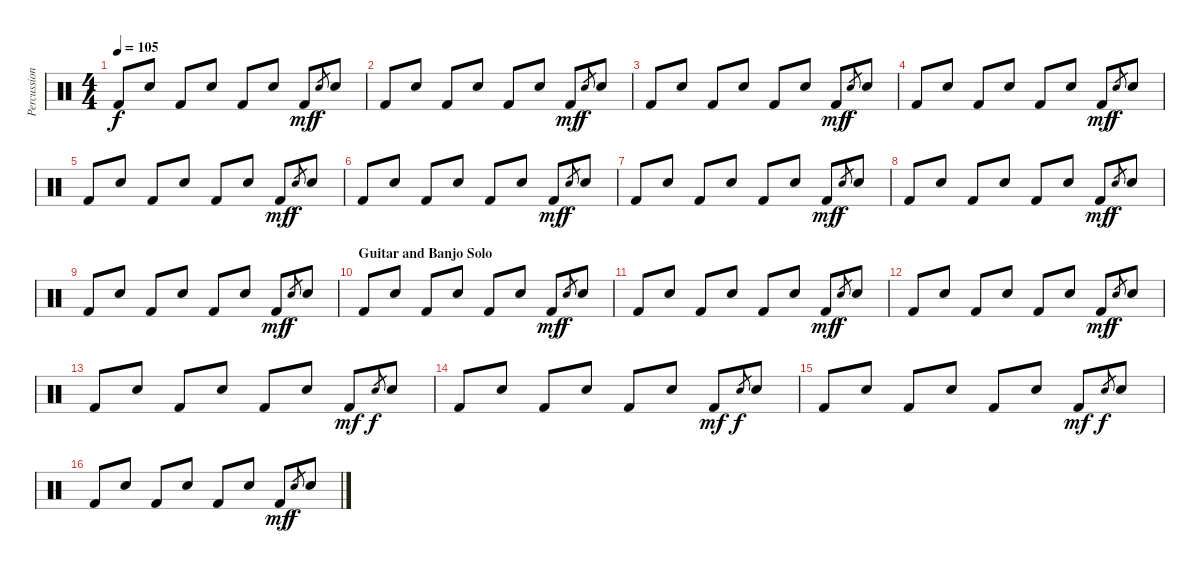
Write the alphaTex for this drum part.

\track ("Percussion" "Percussion") {instrument percussion}
\staff {score}
\articulation defaults
\ts (4 4)
\tempo 105
\clef neutral
\ks c "Kick (hit) 2".8{dy f} "Electric Snare (hit)".8 "Kick (hit) 2".8 "Electric Snare (hit)".8 "Kick (hit) 2".8 "Electric Snare (hit)".8 "Kick (hit) 2".8{dy mf} "Electric Snare (hit)".8{gr dy f} "Electric Snare (hit)".8
|
"Kick (hit) 2".8 "Electric Snare (hit)".8 "Kick (hit) 2".8 "Electric Snare (hit)".8 "Kick (hit) 2".8 "Electric Snare (hit)".8 "Kick (hit) 2".8{dy mf} "Electric Snare (hit)".8{gr dy f} "Electric Snare (hit)".8 |
"Kick (hit) 2".8 "Electric Snare (hit)".8 "Kick (hit) 2".8 "Electric Snare (hit)".8 "Kick (hit) 2".8 "Electric Snare (hit)".8 "Kick (hit) 2".8{dy mf} "Electric Snare (hit)".8{gr dy f} "Electric Snare (hit)".8 |
"Kick (hit) 2".8 "Electric Snare (hit)".8 "Kick (hit) 2".8 "Electric Snare (hit)".8 "Kick (hit) 2".8 "Electric Snare (hit)".8 "Kick (hit) 2".8{dy mf} "Electric Snare (hit)".8{gr dy f} "Electric Snare (hit)".8 |
"Kick (hit) 2".8 "Electric Snare (hit)".8 "Kick (hit) 2".8 "Electric Snare (hit)".8 "Kick (hit) 2".8 "Electric Snare (hit)".8 "Kick (hit) 2".8{dy mf} "Electric Snare (hit)".8{gr dy f} "Electric Snare (hit)".8 |
"Kick (hit) 2".8 "Electric Snare (hit)".8 "Kick (hit) 2".8 "Electric Snare (hit)".8 "Kick (hit) 2".8 "Electric Snare (hit)".8 "Kick (hit) 2".8{dy mf} "Electric Snare (hit)".8{gr dy f} "Electric Snare (hit)".8 |
"Kick (hit) 2".8 "Electric Snare (hit)".8 "Kick (hit) 2".8 "Electric Snare (hit)".8 "Kick (hit) 2".8 "Electric Snare (hit)".8 "Kick (hit) 2".8{dy mf} "Electric Snare (hit)".8{gr dy f} "Electric Snare (hit)".8 |
"Kick (hit) 2".8 "Electric Snare (hit)".8 "Kick (hit) 2".8 "Electric Snare (hit)".8 "Kick (hit) 2".8 "Electric Snare (hit)".8 "Kick (hit) 2".8{dy mf} "Electric Snare (hit)".8{gr dy f} "Electric Snare (hit)".8 |
"Kick (hit) 2".8 "Electric Snare (hit)".8 "Kick (hit) 2".8 "Electric Snare (hit)".8 "Kick (hit) 2".8 "Electric Snare (hit)".8 "Kick (hit) 2".8{dy mf} "Electric Snare (hit)".8{gr dy f} "Electric Snare (hit)".8 |
\section ("" "Guitar and Banjo Solo")
"Kick (hit) 2".8 "Electric Snare (hit)".8 "Kick (hit) 2".8 "Electric Snare (hit)".8 "Kick (hit) 2".8 "Electric Snare (hit)".8 "Kick (hit) 2".8{dy mf} "Electric Snare (hit)".8{gr dy f} "Electric Snare (hit)".8 |
"Kick (hit) 2".8 "Electric Snare (hit)".8 "Kick (hit) 2".8 "Electric Snare (hit)".8 "Kick (hit) 2".8 "Electric Snare (hit)".8 "Kick (hit) 2".8{dy mf} "Electric Snare (hit)".8{gr dy f} "Electric Snare (hit)".8 |
"Kick (hit) 2".8 "Electric Snare (hit)".8 "Kick (hit) 2".8 "Electric Snare (hit)".8 "Kick (hit) 2".8 "Electric Snare (hit)".8 "Kick (hit) 2".8{dy mf} "Electric Snare (hit)".8{gr dy f} "Electric Snare (hit)".8 |
"Kick (hit) 2".8 "Electric Snare (hit)".8 "Kick (hit) 2".8 "Electric Snare (hit)".8 "Kick (hit) 2".8 "Electric Snare (hit)".8 "Kick (hit) 2".8{dy mf} "Electric Snare (hit)".8{gr dy f} "Electric Snare (hit)".8 |
"Kick (hit) 2".8 "Electric Snare (hit)".8 "Kick (hit) 2".8 "Electric Snare (hit)".8 "Kick (hit) 2".8 "Electric Snare (hit)".8 "Kick (hit) 2".8{dy mf} "Electric Snare (hit)".8{gr dy f} "Electric Snare (hit)".8 |
"Kick (hit) 2".8 "Electric Snare (hit)".8 "Kick (hit) 2".8 "Electric Snare (hit)".8 "Kick (hit) 2".8 "Electric Snare (hit)".8 "Kick (hit) 2".8{dy mf} "Electric Snare (hit)".8{gr dy f} "Electric Snare (hit)".8 |
"Kick (hit) 2".8 "Electric Snare (hit)".8 "Kick (hit) 2".8 "Electric Snare (hit)".8 "Kick (hit) 2".8 "Electric Snare (hit)".8 "Kick (hit) 2".8{dy mf} "Electric Snare (hit)".8{gr dy f} "Electric Snare (hit)".8
